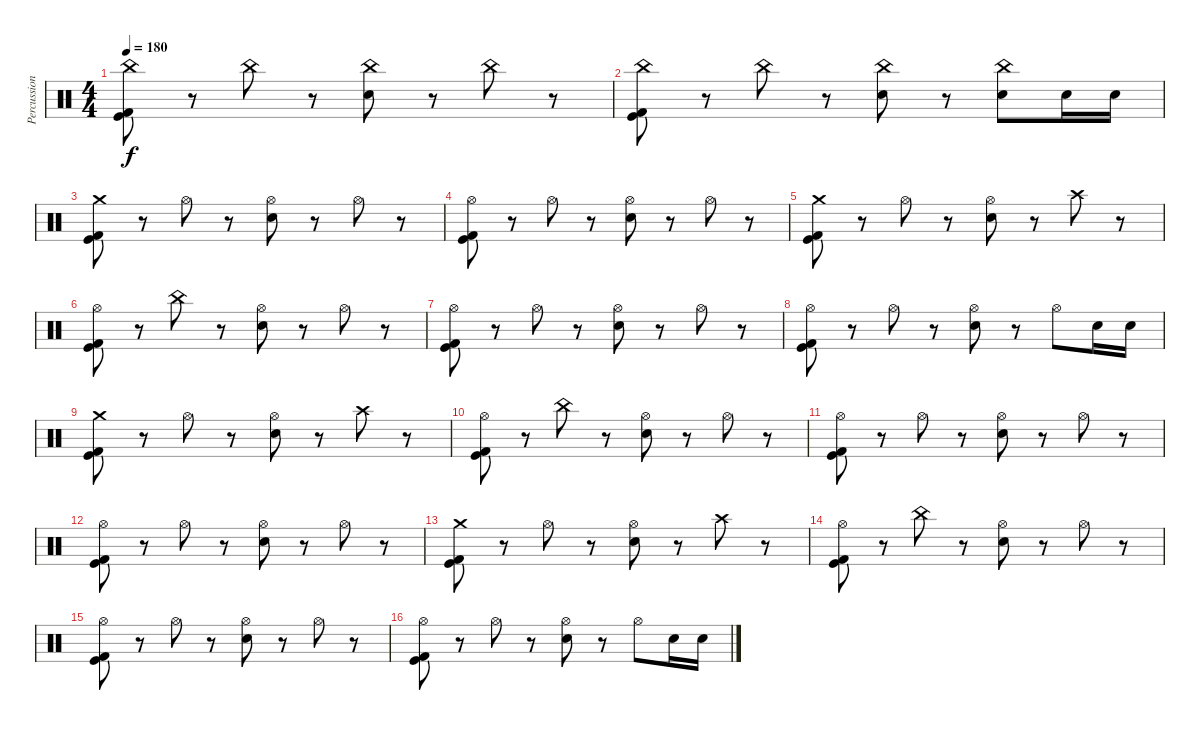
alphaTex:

\track ("Percussions" "Percussion") {instrument percussion}
\staff {score}
\articulation defaults
\ts (4 4)
\tempo 180
\clef neutral
\ks c
("China (hit)" "Kick (hit) 2" "Kick (hit)").8{dy f} r.8 "China (hit)".8 r.8 ("China (hit)" "Electric Snare (hit)").8 r.8 "China (hit)".8 r.8 |
("China (hit)" "Kick (hit) 2" "Kick (hit)").8 r.8 "China (hit)".8 r.8 ("China (hit)" "Electric Snare (hit)").8 r.8 ("China (hit)" "Electric Snare (hit)").8 "Electric Snare (hit)".16 "Electric Snare (hit)".16 |
("Crash medium (hit)" "Kick (hit) 2" "Kick (hit)").8 r.8 "Hi-Hat (open)".8 r.8 ("Hi-Hat (open)" "Electric Snare (hit)").8 r.8 "Hi-Hat (open)".8 r.8 |
("Hi-Hat (open)" "Kick (hit) 2" "Kick (hit)").8 r.8 "Hi-Hat (open)".8 r.8 ("Hi-Hat (open)" "Electric Snare (hit)").8 r.8 "Hi-Hat (open)".8 r.8 |
("Crash medium (hit)" "Kick (hit) 2" "Kick (hit)").8 r.8 "Hi-Hat (open)".8 r.8 ("Hi-Hat (open)" "Electric Snare (hit)").8 r.8 "Crash high (hit)".8 r.8 |
("Hi-Hat (open)" "Kick (hit) 2" "Kick (hit)").8 r.8 "China (hit)".8 r.8 ("Hi-Hat (open)" "Electric Snare (hit)").8 r.8 "Hi-Hat (open)".8 r.8 |
("Hi-Hat (open)" "Kick (hit) 2" "Kick (hit)").8 r.8 "Hi-Hat (open)".8 r.8 ("Hi-Hat (open)" "Electric Snare (hit)").8 r.8 "Hi-Hat (open)".8 r.8 |
("Hi-Hat (open)" "Kick (hit) 2" "Kick (hit)").8 r.8 "Hi-Hat (open)".8 r.8 ("Hi-Hat (open)" "Electric Snare (hit)").8 r.8 "Hi-Hat (open)".8 "Electric Snare (hit)".16 "Electric Snare (hit)".16 |
("Crash medium (hit)" "Kick (hit) 2" "Kick (hit)").8 r.8 "Hi-Hat (open)".8 r.8 ("Hi-Hat (open)" "Electric Snare (hit)").8 r.8 "Crash high (hit)".8 r.8 |
("Hi-Hat (open)" "Kick (hit) 2" "Kick (hit)").8 r.8 "China (hit)".8 r.8 ("Hi-Hat (open)" "Electric Snare (hit)").8 r.8 "Hi-Hat (open)".8 r.8 |
("Hi-Hat (open)" "Kick (hit) 2" "Kick (hit)").8 r.8 "Hi-Hat (open)".8 r.8 ("Hi-Hat (open)" "Electric Snare (hit)").8 r.8 "Hi-Hat (open)".8 r.8 |
("Hi-Hat (open)" "Kick (hit) 2" "Kick (hit)").8 r.8 "Hi-Hat (open)".8 r.8 ("Hi-Hat (open)" "Electric Snare (hit)").8 r.8 "Hi-Hat (open)".8 r.8 |
("Crash medium (hit)" "Kick (hit) 2" "Kick (hit)").8 r.8 "Hi-Hat (open)".8 r.8 ("Hi-Hat (open)" "Electric Snare (hit)").8 r.8 "Crash high (hit)".8 r.8 |
("Hi-Hat (open)" "Kick (hit) 2" "Kick (hit)").8 r.8 "China (hit)".8 r.8 ("Hi-Hat (open)" "Electric Snare (hit)").8 r.8 "Hi-Hat (open)".8 r.8 |
("Hi-Hat (open)" "Kick (hit) 2" "Kick (hit)").8 r.8 "Hi-Hat (open)".8 r.8 ("Hi-Hat (open)" "Electric Snare (hit)").8 r.8 "Hi-Hat (open)".8 r.8 |
("Hi-Hat (open)" "Kick (hit) 2" "Kick (hit)").8 r.8 "Hi-Hat (open)".8 r.8 ("Hi-Hat (open)" "Electric Snare (hit)").8 r.8 "Hi-Hat (open)".8 "Electric Snare (hit)".16 "Electric Snare (hit)".16
